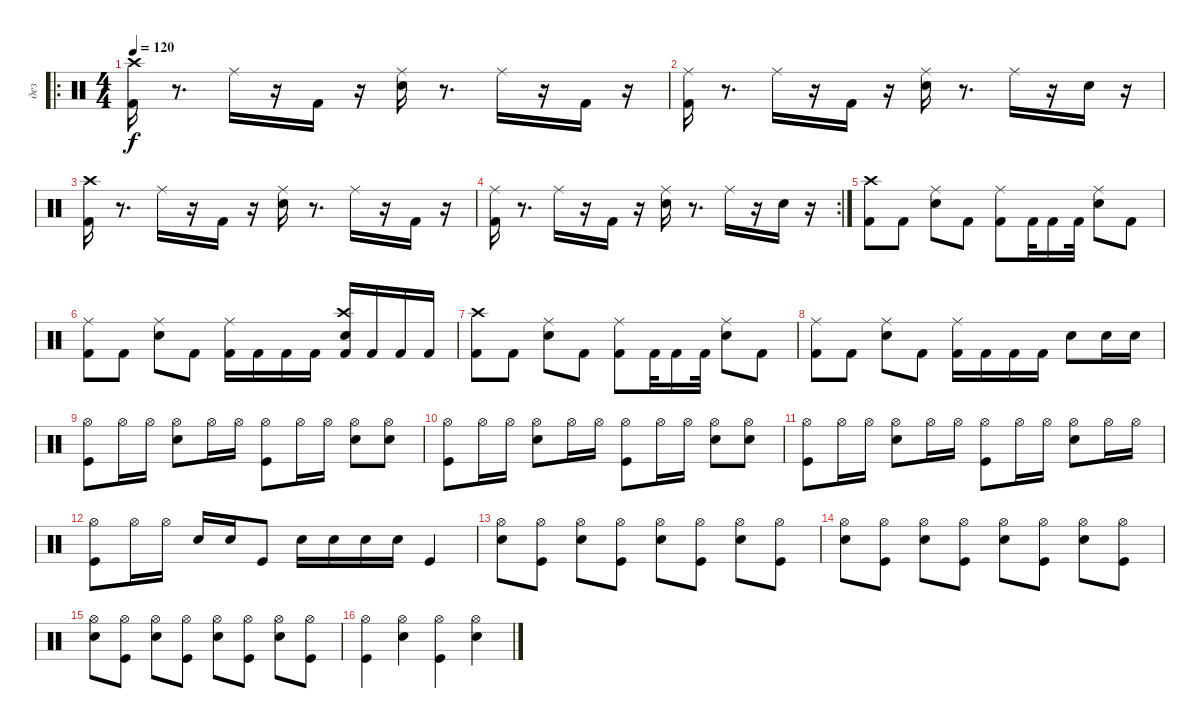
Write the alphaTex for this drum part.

\track ("дез" "дез") {instrument percussion}
\staff {score}
\articulation defaults
\ro
\ts (4 4)
\tempo 120
\clef neutral
\ks c
("Kick (hit) 2" "Crash high (hit)").16{dy f} r.8{d} "Ride (middle)".16 r.16 "Kick (hit) 2".16 r.16 ("Snare (hit) 2" "Ride (middle)").16 r.8{d} "Ride (middle)".16 r.16 "Kick (hit) 2".16 r.16 |
("Kick (hit) 2" "Ride (middle)").16 r.8{d} "Ride (middle)".16 r.16 "Kick (hit) 2".16 r.16 ("Snare (hit) 2" "Ride (middle)").16 r.8{d} "Ride (middle)".16 r.16 "Snare (hit) 2".16 r.16 |
("Kick (hit) 2" "Crash high (hit)").16 r.8{d} "Ride (middle)".16 r.16 "Kick (hit) 2".16 r.16 ("Snare (hit) 2" "Ride (middle)").16 r.8{d} "Ride (middle)".16 r.16 "Kick (hit) 2".16 r.16 |
\rc 2
("Kick (hit) 2" "Ride (middle)").16 r.8{d} "Ride (middle)".16 r.16 "Kick (hit) 2".16 r.16 ("Snare (hit) 2" "Ride (middle)").16 r.8{d} "Ride (middle)".16 r.16 "Snare (hit) 2".16 r.16 |
("Crash high (hit)" "Kick (hit) 2").8 "Kick (hit) 2".8 ("Ride (middle)" "Snare (hit) 2").8 "Kick (hit) 2".8 ("Ride (middle)" "Kick (hit) 2").8 "Kick (hit) 2".32 "Kick (hit) 2".16 "Kick (hit) 2".32 ("Ride (middle)" "Snare (hit) 2").8 "Kick (hit) 2".8 |
("Ride (middle)" "Kick (hit) 2").8 "Kick (hit) 2".8 ("Ride (middle)" "Snare (hit) 2").8 "Kick (hit) 2".8 ("Ride (middle)" "Kick (hit) 2").16 "Kick (hit) 2".16 "Kick (hit) 2".16 "Kick (hit) 2".16 ("Crash high (hit)" "Snare (hit) 2" "Kick (hit) 2").16 "Kick (hit) 2".16 "Kick (hit) 2".16 "Kick (hit) 2".16 |
("Crash high (hit)" "Kick (hit) 2").8 "Kick (hit) 2".8 ("Ride (middle)" "Snare (hit) 2").8 "Kick (hit) 2".8 ("Ride (middle)" "Kick (hit) 2").8 "Kick (hit) 2".32 "Kick (hit) 2".16 "Kick (hit) 2".32 ("Ride (middle)" "Snare (hit) 2").8 "Kick (hit) 2".8 |
("Ride (middle)" "Kick (hit) 2").8 "Kick (hit) 2".8 ("Ride (middle)" "Snare (hit) 2").8 "Kick (hit) 2".8 ("Ride (middle)" "Kick (hit) 2").16 "Kick (hit) 2".16 "Kick (hit) 2".16 "Kick (hit) 2".16 "Snare (hit) 2".8 "Snare (hit) 2".16 "Snare (hit) 2".16 |
("Hi-Hat (open)" "Kick (hit)").8 "Hi-Hat (open)".16 "Hi-Hat (open)".16 ("Hi-Hat (open)" "Snare (hit) 2").8 "Hi-Hat (open)".16 "Hi-Hat (open)".16 ("Hi-Hat (open)" "Kick (hit)").8 "Hi-Hat (open)".16 "Hi-Hat (open)".16 ("Snare (hit) 2" "Hi-Hat (open)").8 ("Snare (hit) 2" "Hi-Hat (open)").8 |
("Hi-Hat (open)" "Kick (hit)").8 "Hi-Hat (open)".16 "Hi-Hat (open)".16 ("Hi-Hat (open)" "Snare (hit) 2").8 "Hi-Hat (open)".16 "Hi-Hat (open)".16 ("Hi-Hat (open)" "Kick (hit)").8 "Hi-Hat (open)".16 "Hi-Hat (open)".16 ("Snare (hit) 2" "Hi-Hat (open)").8 ("Snare (hit) 2" "Hi-Hat (open)").8 |
("Hi-Hat (open)" "Kick (hit)").8 "Hi-Hat (open)".16 "Hi-Hat (open)".16 ("Hi-Hat (open)" "Snare (hit) 2").8 "Hi-Hat (open)".16 "Hi-Hat (open)".16 ("Hi-Hat (open)" "Kick (hit)").8 "Hi-Hat (open)".16 "Hi-Hat (open)".16 ("Snare (hit) 2" "Hi-Hat (open)").8 "Hi-Hat (open)".16 "Hi-Hat (open)".16 |
("Hi-Hat (open)" "Kick (hit)").8 "Hi-Hat (open)".16 "Hi-Hat (open)".16 "Snare (hit) 2".16 "Snare (hit) 2".16 "Kick (hit)".8 "Snare (hit) 2".16 "Snare (hit) 2".16 "Snare (hit) 2".16 "Snare (hit) 2".16 "Kick (hit)".4 |
("Hi-Hat (open)" "Snare (hit) 2").8 ("Hi-Hat (open)" "Kick (hit)").8 ("Hi-Hat (open)" "Snare (hit) 2").8 ("Hi-Hat (open)" "Kick (hit)").8 ("Hi-Hat (open)" "Snare (hit) 2").8 ("Hi-Hat (open)" "Kick (hit)").8 ("Hi-Hat (open)" "Snare (hit) 2").8 ("Hi-Hat (open)" "Kick (hit)").8 |
("Hi-Hat (open)" "Snare (hit) 2").8 ("Hi-Hat (open)" "Kick (hit)").8 ("Hi-Hat (open)" "Snare (hit) 2").8 ("Hi-Hat (open)" "Kick (hit)").8 ("Hi-Hat (open)" "Snare (hit) 2").8 ("Hi-Hat (open)" "Kick (hit)").8 ("Hi-Hat (open)" "Snare (hit) 2").8 ("Hi-Hat (open)" "Kick (hit)").8 |
("Hi-Hat (open)" "Snare (hit) 2").8 ("Hi-Hat (open)" "Kick (hit)").8 ("Hi-Hat (open)" "Snare (hit) 2").8 ("Hi-Hat (open)" "Kick (hit)").8 ("Hi-Hat (open)" "Snare (hit) 2").8 ("Hi-Hat (open)" "Kick (hit)").8 ("Hi-Hat (open)" "Snare (hit) 2").8 ("Hi-Hat (open)" "Kick (hit)").8 |
("Hi-Hat (open)" "Kick (hit)").4 ("Hi-Hat (open)" "Snare (hit) 2").4 ("Hi-Hat (open)" "Kick (hit)").4 ("Hi-Hat (open)" "Snare (hit) 2").4
